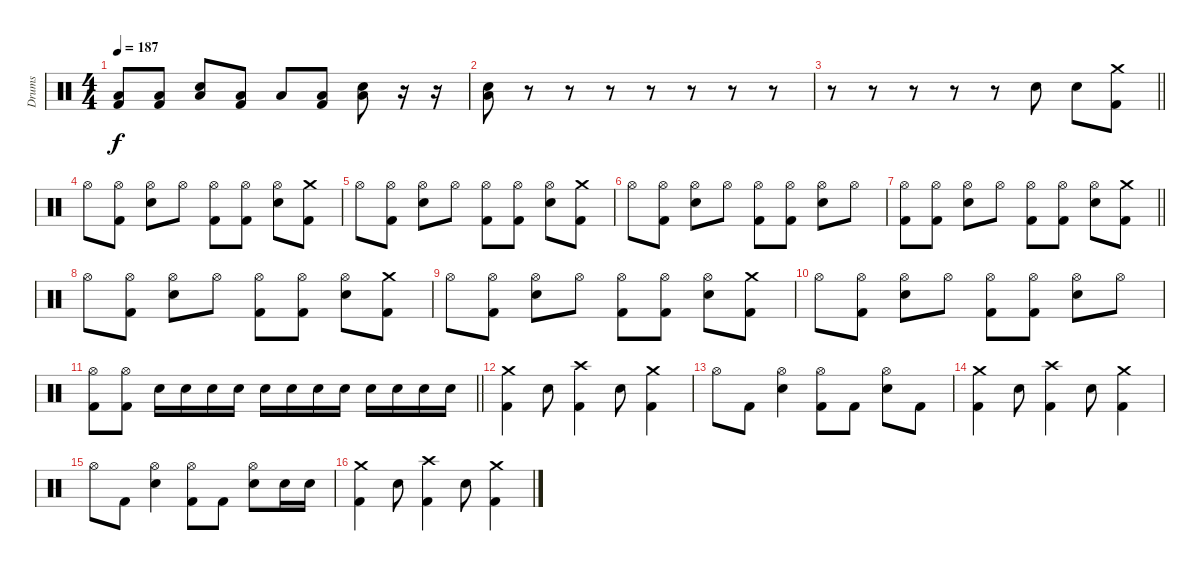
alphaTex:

\track ("Drums" "Drums") {instrument percussion}
\staff {score}
\articulation defaults
\ts (4 4)
\tempo 187
\clef neutral
\ks c
("Low Floor Tom (hit)" "Kick (hit) 2").8{dy f} ("Low Floor Tom (hit)" "Kick (hit) 2").8 ("Electric Snare (hit)" "Low Floor Tom (hit)").8 ("Low Floor Tom (hit)" "Kick (hit) 2").8 "Low Floor Tom (hit)".8 ("Low Floor Tom (hit)" "Kick (hit) 2").8 ("Electric Snare (hit)" "Low Floor Tom (hit)").8 r.16 r.16 |
("Electric Snare (hit)" "Low Floor Tom (hit)").8 r.8 r.8 r.8 r.8 r.8 r.8 r.8 |
\barLineRight lightlight
r.8 r.8 r.8 r.8 r.8 "Electric Snare (hit)".8 "Electric Snare (hit)".8 ("Crash medium (hit)" "Kick (hit) 2").8 |
"Hi-Hat (open)".8 ("Hi-Hat (open)" "Kick (hit) 2").8 ("Hi-Hat (open)" "Electric Snare (hit)").8 "Hi-Hat (open)".8 ("Hi-Hat (open)" "Kick (hit) 2").8 ("Hi-Hat (open)" "Kick (hit) 2").8 ("Hi-Hat (open)" "Electric Snare (hit)").8 ("Crash medium (hit)" "Kick (hit) 2").8 |
"Hi-Hat (open)".8 ("Hi-Hat (open)" "Kick (hit) 2").8 ("Hi-Hat (open)" "Electric Snare (hit)").8 "Hi-Hat (open)".8 ("Hi-Hat (open)" "Kick (hit) 2").8 ("Hi-Hat (open)" "Kick (hit) 2").8 ("Hi-Hat (open)" "Electric Snare (hit)").8 ("Crash medium (hit)" "Kick (hit) 2").8 |
"Hi-Hat (open)".8 ("Hi-Hat (open)" "Kick (hit) 2").8 ("Hi-Hat (open)" "Electric Snare (hit)").8 "Hi-Hat (open)".8 ("Hi-Hat (open)" "Kick (hit) 2").8 ("Hi-Hat (open)" "Kick (hit) 2").8 ("Hi-Hat (open)" "Electric Snare (hit)").8 "Hi-Hat (open)".8 |
\barLineRight lightlight
("Hi-Hat (open)" "Kick (hit) 2").8 ("Hi-Hat (open)" "Kick (hit) 2").8 ("Hi-Hat (open)" "Electric Snare (hit)").8 "Hi-Hat (open)".8 ("Hi-Hat (open)" "Kick (hit) 2").8 ("Hi-Hat (open)" "Kick (hit) 2").8 ("Hi-Hat (open)" "Electric Snare (hit)").8 ("Crash medium (hit)" "Kick (hit) 2").8 |
"Hi-Hat (open)".8 ("Hi-Hat (open)" "Kick (hit) 2").8 ("Hi-Hat (open)" "Electric Snare (hit)").8 "Hi-Hat (open)".8 ("Hi-Hat (open)" "Kick (hit) 2").8 ("Hi-Hat (open)" "Kick (hit) 2").8 ("Hi-Hat (open)" "Electric Snare (hit)").8 ("Crash medium (hit)" "Kick (hit) 2").8 |
"Hi-Hat (open)".8 ("Hi-Hat (open)" "Kick (hit) 2").8 ("Hi-Hat (open)" "Electric Snare (hit)").8 "Hi-Hat (open)".8 ("Hi-Hat (open)" "Kick (hit) 2").8 ("Hi-Hat (open)" "Kick (hit) 2").8 ("Hi-Hat (open)" "Electric Snare (hit)").8 ("Crash medium (hit)" "Kick (hit) 2").8 |
"Hi-Hat (open)".8 ("Hi-Hat (open)" "Kick (hit) 2").8 ("Hi-Hat (open)" "Electric Snare (hit)").8 "Hi-Hat (open)".8 ("Hi-Hat (open)" "Kick (hit) 2").8 ("Hi-Hat (open)" "Kick (hit) 2").8 ("Hi-Hat (open)" "Electric Snare (hit)").8 "Hi-Hat (open)".8 |
\barLineRight lightlight
("Hi-Hat (open)" "Kick (hit) 2").8 ("Hi-Hat (open)" "Kick (hit) 2").8 "Electric Snare (hit)".16 "Electric Snare (hit)".16 "Electric Snare (hit)".16 "Electric Snare (hit)".16 "Electric Snare (hit)".16 "Electric Snare (hit)".16 "Electric Snare (hit)".16 "Electric Snare (hit)".16 "Electric Snare (hit)".16 "Electric Snare (hit)".16 "Electric Snare (hit)".16 "Electric Snare (hit)".16 |
("Crash medium (hit)" "Kick (hit) 2").4 "Electric Snare (hit)".8 ("Crash high (hit)" "Kick (hit) 2").4 "Electric Snare (hit)".8 ("Crash medium (hit)" "Kick (hit) 2").4 |
"Hi-Hat (open)".8 "Kick (hit) 2".8 ("Hi-Hat (open)" "Electric Snare (hit)").4 ("Hi-Hat (open)" "Kick (hit) 2").8 "Kick (hit) 2".8 ("Hi-Hat (open)" "Electric Snare (hit)").8 "Kick (hit) 2".8 |
("Crash medium (hit)" "Kick (hit) 2").4 "Electric Snare (hit)".8 ("Crash high (hit)" "Kick (hit) 2").4 "Electric Snare (hit)".8 ("Crash medium (hit)" "Kick (hit) 2").4 |
"Hi-Hat (open)".8 "Kick (hit) 2".8 ("Hi-Hat (open)" "Electric Snare (hit)").4 ("Hi-Hat (open)" "Kick (hit) 2").8 "Kick (hit) 2".8 ("Hi-Hat (open)" "Electric Snare (hit)").8 "Electric Snare (hit)".16 "Electric Snare (hit)".16 |
("Crash medium (hit)" "Kick (hit) 2").4 "Electric Snare (hit)".8 ("Crash high (hit)" "Kick (hit) 2").4 "Electric Snare (hit)".8 ("Crash medium (hit)" "Kick (hit) 2").4
